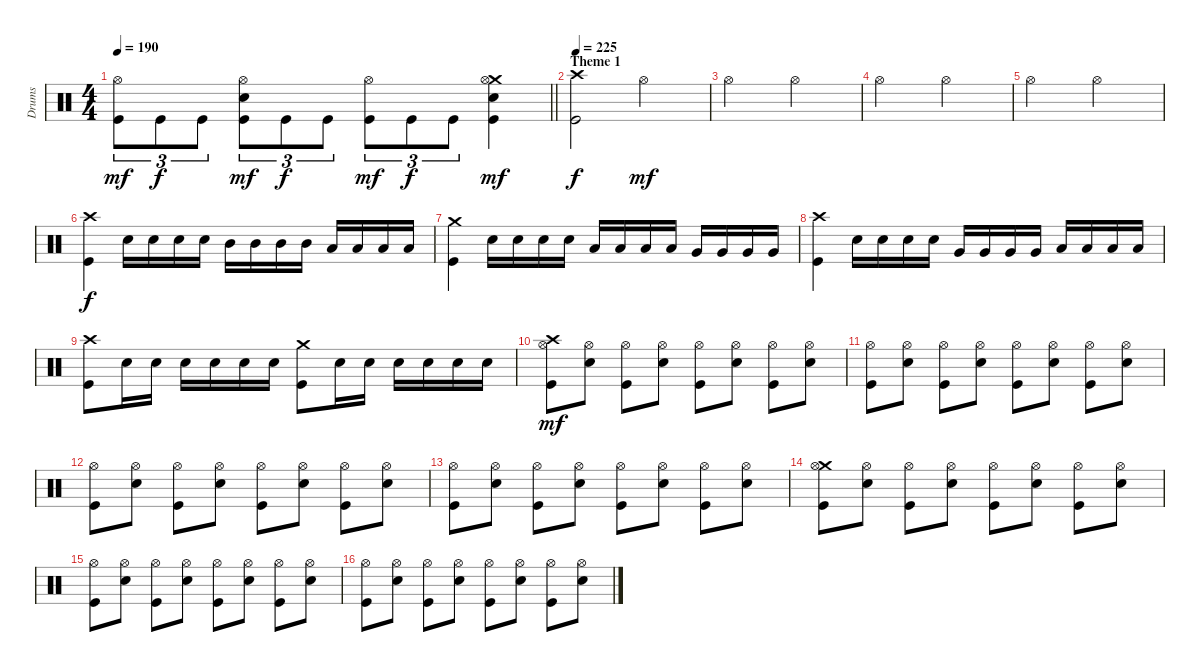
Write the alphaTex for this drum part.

\track ("Drums" "Drums") {instrument percussion}
\staff {score}
\articulation defaults
\ts (4 4)
\tempo 190
\clef neutral
\barLineRight lightlight
\ks c
("Hi-Hat (open)" "Kick (hit)").8{tu (3 2) dy mf} "Kick (hit)".8{tu (3 2) dy f} "Kick (hit)".8{tu (3 2)} ("Hi-Hat (open)" "Electric Snare (hit)" "Kick (hit)").8{tu (3 2) dy mf} "Kick (hit)".8{tu (3 2) dy f} "Kick (hit)".8{tu (3 2)} ("Hi-Hat (open)" "Kick (hit)").8{tu (3 2) dy mf} "Kick (hit)".8{tu (3 2) dy f} "Kick (hit)".8{tu (3 2)} ("Crash medium (hit)" "Hi-Hat (open)" "Electric Snare (hit)" "Kick (hit)").4{dy mf} |
\section ("" "Theme 1")
\tempo 225
("Crash high (hit)" "Kick (hit)").2{dy f} "Hi-Hat (open)".2{dy mf} |
"Hi-Hat (open)".2 "Hi-Hat (open)".2 |
"Hi-Hat (open)".2 "Hi-Hat (open)".2 |
"Hi-Hat (open)".2 "Hi-Hat (open)".2 |
("Crash high (hit)" "Kick (hit)").4{dy f} "Electric Snare (hit)".16 "Electric Snare (hit)".16 "Electric Snare (hit)".16 "Electric Snare (hit)".16 "Mid Tom (hit)".16 "Mid Tom (hit)".16 "Mid Tom (hit)".16 "Mid Tom (hit)".16 "Low Tom (hit)".16 "Low Tom (hit)".16 "Low Tom (hit)".16 "Low Tom (hit)".16 |
("Crash medium (hit)" "Kick (hit)").4 "Electric Snare (hit)".16 "Electric Snare (hit)".16 "Electric Snare (hit)".16 "Electric Snare (hit)".16 "Low Tom (hit)".16 "Low Tom (hit)".16 "Low Tom (hit)".16 "Low Tom (hit)".16 "Very Low Tom (hit)".16 "Very Low Tom (hit)".16 "Very Low Tom (hit)".16 "Very Low Tom (hit)".16 |
("Crash high (hit)" "Kick (hit)").4 "Electric Snare (hit)".16 "Electric Snare (hit)".16 "Electric Snare (hit)".16 "Electric Snare (hit)".16 "Very Low Tom (hit)".16 "Very Low Tom (hit)".16 "Very Low Tom (hit)".16 "Very Low Tom (hit)".16 "Low Floor Tom (hit)".16 "Low Floor Tom (hit)".16 "Low Floor Tom (hit)".16 "Low Floor Tom (hit)".16 |
("Crash high (hit)" "Kick (hit)").8 "Electric Snare (hit)".16 "Electric Snare (hit)".16 "Electric Snare (hit)".16 "Electric Snare (hit)".16 "Electric Snare (hit)".16 "Electric Snare (hit)".16 ("Crash medium (hit)" "Kick (hit)").8 "Electric Snare (hit)".16 "Electric Snare (hit)".16 "Electric Snare (hit)".16 "Electric Snare (hit)".16 "Electric Snare (hit)".16 "Electric Snare (hit)".16 |
("Crash high (hit)" "Hi-Hat (open)" "Kick (hit)").8{dy mf} ("Hi-Hat (open)" "Electric Snare (hit)").8 ("Hi-Hat (open)" "Kick (hit)").8 ("Hi-Hat (open)" "Electric Snare (hit)").8 ("Hi-Hat (open)" "Kick (hit)").8 ("Hi-Hat (open)" "Electric Snare (hit)").8 ("Hi-Hat (open)" "Kick (hit)").8 ("Hi-Hat (open)" "Electric Snare (hit)").8 |
("Hi-Hat (open)" "Kick (hit)").8 ("Hi-Hat (open)" "Electric Snare (hit)").8 ("Hi-Hat (open)" "Kick (hit)").8 ("Hi-Hat (open)" "Electric Snare (hit)").8 ("Hi-Hat (open)" "Kick (hit)").8 ("Hi-Hat (open)" "Electric Snare (hit)").8 ("Hi-Hat (open)" "Kick (hit)").8 ("Hi-Hat (open)" "Electric Snare (hit)").8 |
("Hi-Hat (open)" "Kick (hit)").8 ("Hi-Hat (open)" "Electric Snare (hit)").8 ("Hi-Hat (open)" "Kick (hit)").8 ("Hi-Hat (open)" "Electric Snare (hit)").8 ("Hi-Hat (open)" "Kick (hit)").8 ("Hi-Hat (open)" "Electric Snare (hit)").8 ("Hi-Hat (open)" "Kick (hit)").8 ("Hi-Hat (open)" "Electric Snare (hit)").8 |
("Hi-Hat (open)" "Kick (hit)").8 ("Hi-Hat (open)" "Electric Snare (hit)").8 ("Hi-Hat (open)" "Kick (hit)").8 ("Hi-Hat (open)" "Electric Snare (hit)").8 ("Hi-Hat (open)" "Kick (hit)").8 ("Hi-Hat (open)" "Electric Snare (hit)").8 ("Hi-Hat (open)" "Kick (hit)").8 ("Hi-Hat (open)" "Electric Snare (hit)").8 |
("Crash medium (hit)" "Hi-Hat (open)" "Kick (hit)").8 ("Hi-Hat (open)" "Electric Snare (hit)").8 ("Hi-Hat (open)" "Kick (hit)").8 ("Hi-Hat (open)" "Electric Snare (hit)").8 ("Hi-Hat (open)" "Kick (hit)").8 ("Hi-Hat (open)" "Electric Snare (hit)").8 ("Hi-Hat (open)" "Kick (hit)").8 ("Hi-Hat (open)" "Electric Snare (hit)").8 |
("Hi-Hat (open)" "Kick (hit)").8 ("Hi-Hat (open)" "Electric Snare (hit)").8 ("Hi-Hat (open)" "Kick (hit)").8 ("Hi-Hat (open)" "Electric Snare (hit)").8 ("Hi-Hat (open)" "Kick (hit)").8 ("Hi-Hat (open)" "Electric Snare (hit)").8 ("Hi-Hat (open)" "Kick (hit)").8 ("Hi-Hat (open)" "Electric Snare (hit)").8 |
("Hi-Hat (open)" "Kick (hit)").8 ("Hi-Hat (open)" "Electric Snare (hit)").8 ("Hi-Hat (open)" "Kick (hit)").8 ("Hi-Hat (open)" "Electric Snare (hit)").8 ("Hi-Hat (open)" "Kick (hit)").8 ("Hi-Hat (open)" "Electric Snare (hit)").8 ("Hi-Hat (open)" "Kick (hit)").8 ("Hi-Hat (open)" "Electric Snare (hit)").8
